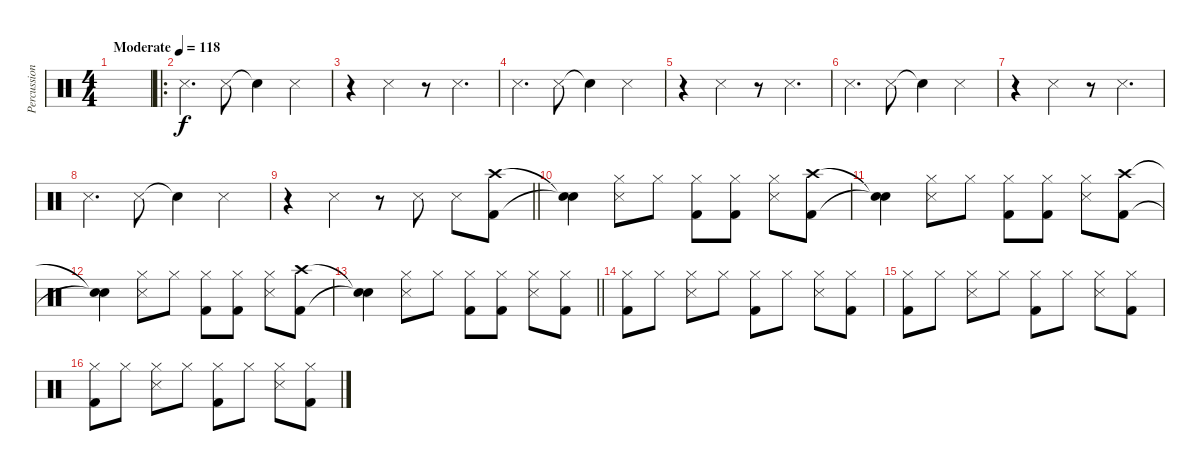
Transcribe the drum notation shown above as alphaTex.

\track ("Percussion" "Percussion") {instrument percussion}
\staff {score}
\articulation defaults
\ts (4 4)
\tempo (118 "Moderate")
\clef neutral
\ks c
|
\ro "Snare (side stick) 3".4{d} "Snare (side stick) 3".8 "Snare (hit)"{t}.4 "Snare (side stick) 3".4
|
r.4 "Snare (side stick) 3".4 r.8 "Snare (side stick) 3".4{d} |
"Snare (side stick) 3".4{d} "Snare (side stick) 3".8 "Snare (hit)"{t}.4 "Snare (side stick) 3".4 |
r.4 "Snare (side stick) 3".4 r.8 "Snare (side stick) 3".4{d} |
"Snare (side stick) 3".4{d} "Snare (side stick) 3".8 "Snare (hit)"{t}.4 "Snare (side stick) 3".4 |
r.4 "Snare (side stick) 3".4 r.8 "Snare (side stick) 3".4{d} |
"Snare (side stick) 3".4{d} "Snare (side stick) 3".8 "Snare (hit)"{t}.4 "Snare (side stick) 3".4 |
\barLineRight lightlight
r.4 "Snare (side stick) 3".4 r.8 "Snare (side stick) 3".8 "Snare (side stick) 3".8 ("Crash high (hit)" "Kick (hit) 2").8 |
("Snare (hit)"{t} "Snare (hit)"{t}).4 ("Hi-Hat (closed)" "Snare (side stick) 3").8 "Hi-Hat (closed)".8 ("Hi-Hat (closed)" "Kick (hit) 2").8 ("Hi-Hat (closed)" "Kick (hit) 2").8 ("Hi-Hat (closed)" "Snare (side stick) 3").8 ("Crash high (hit)" "Kick (hit) 2").8 |
("Snare (hit)"{t} "Snare (hit)"{t}).4 ("Hi-Hat (closed)" "Snare (side stick) 3").8 "Hi-Hat (closed)".8 ("Hi-Hat (closed)" "Kick (hit) 2").8 ("Hi-Hat (closed)" "Kick (hit) 2").8 ("Hi-Hat (closed)" "Snare (side stick) 3").8 ("Crash high (hit)" "Kick (hit) 2").8 |
("Snare (hit)"{t} "Snare (hit)"{t}).4 ("Hi-Hat (closed)" "Snare (side stick) 3").8 "Hi-Hat (closed)".8 ("Hi-Hat (closed)" "Kick (hit) 2").8 ("Hi-Hat (closed)" "Kick (hit) 2").8 ("Hi-Hat (closed)" "Snare (side stick) 3").8 ("Crash high (hit)" "Kick (hit) 2").8 |
\barLineRight lightlight
("Snare (hit)"{t} "Snare (hit)"{t}).4 ("Hi-Hat (closed)" "Snare (side stick) 3").8 "Hi-Hat (closed)".8 ("Hi-Hat (closed)" "Kick (hit) 2").8 ("Hi-Hat (closed)" "Kick (hit) 2").8 ("Hi-Hat (closed)" "Snare (side stick) 3").8 ("Hi-Hat (closed)" "Kick (hit) 2").8 |
("Hi-Hat (closed)" "Kick (hit) 2").8 "Hi-Hat (closed)".8 ("Hi-Hat (closed)" "Snare (side stick) 3").8 "Hi-Hat (closed)".8 ("Hi-Hat (closed)" "Kick (hit) 2").8 "Hi-Hat (closed)".8 ("Hi-Hat (closed)" "Snare (side stick) 3").8 ("Hi-Hat (closed)" "Kick (hit) 2").8 |
("Hi-Hat (closed)" "Kick (hit) 2").8 "Hi-Hat (closed)".8 ("Hi-Hat (closed)" "Snare (side stick) 3").8 "Hi-Hat (closed)".8 ("Hi-Hat (closed)" "Kick (hit) 2").8 "Hi-Hat (closed)".8 ("Hi-Hat (closed)" "Snare (side stick) 3").8 ("Hi-Hat (closed)" "Kick (hit) 2").8 |
("Hi-Hat (closed)" "Kick (hit) 2").8 "Hi-Hat (closed)".8 ("Hi-Hat (closed)" "Snare (side stick) 3").8 "Hi-Hat (closed)".8 ("Hi-Hat (closed)" "Kick (hit) 2").8 "Hi-Hat (closed)".8 ("Hi-Hat (closed)" "Snare (side stick) 3").8 ("Hi-Hat (closed)" "Kick (hit) 2").8
